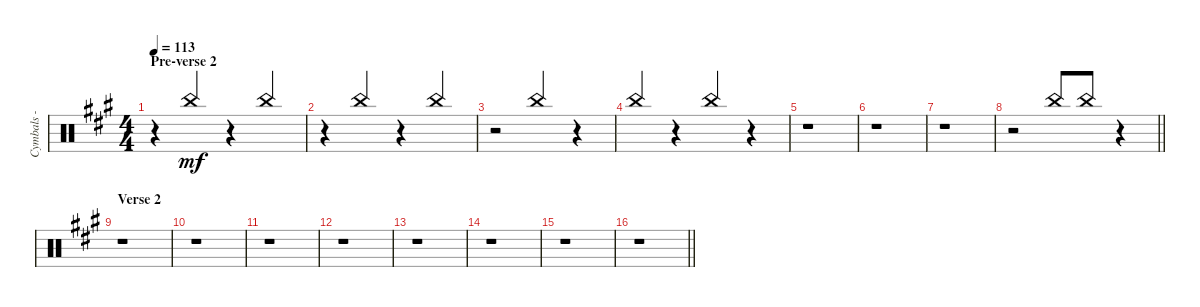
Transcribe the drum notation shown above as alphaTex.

\track ("Cymbals - china" "Cymbals - ") {instrument percussion}
\staff {score}
\articulation defaults
\ts (4 4)
\section ("" "Pre-verse 2")
\tempo 113
\clef neutral
\ks f#minor
r.4{dy mf beam Up} "China (hit)".4{beam Up} r.4{beam Up} "China (hit)".4{beam Up} |
r.4{beam Up} "China (hit)".4{beam Up} r.4{beam Up} "China (hit)".4{beam Up} |
r.2{beam Up} "China (hit)".4{beam Up} r.4 |
"China (hit)".4{beam Up} r.4 "China (hit)".4{beam Up} r.4 |
r.1 |
r.1 |
r.1 |
\barLineRight lightlight
r.2{beam Up} "China (hit)".8{beam Up} "China (hit)".8{beam Up} r.4 |
\section ("" "Verse 2")
r.1 |
r.1 |
r.1 |
r.1 |
r.1 |
r.1 |
r.1 |
\barLineRight lightlight
r.1
